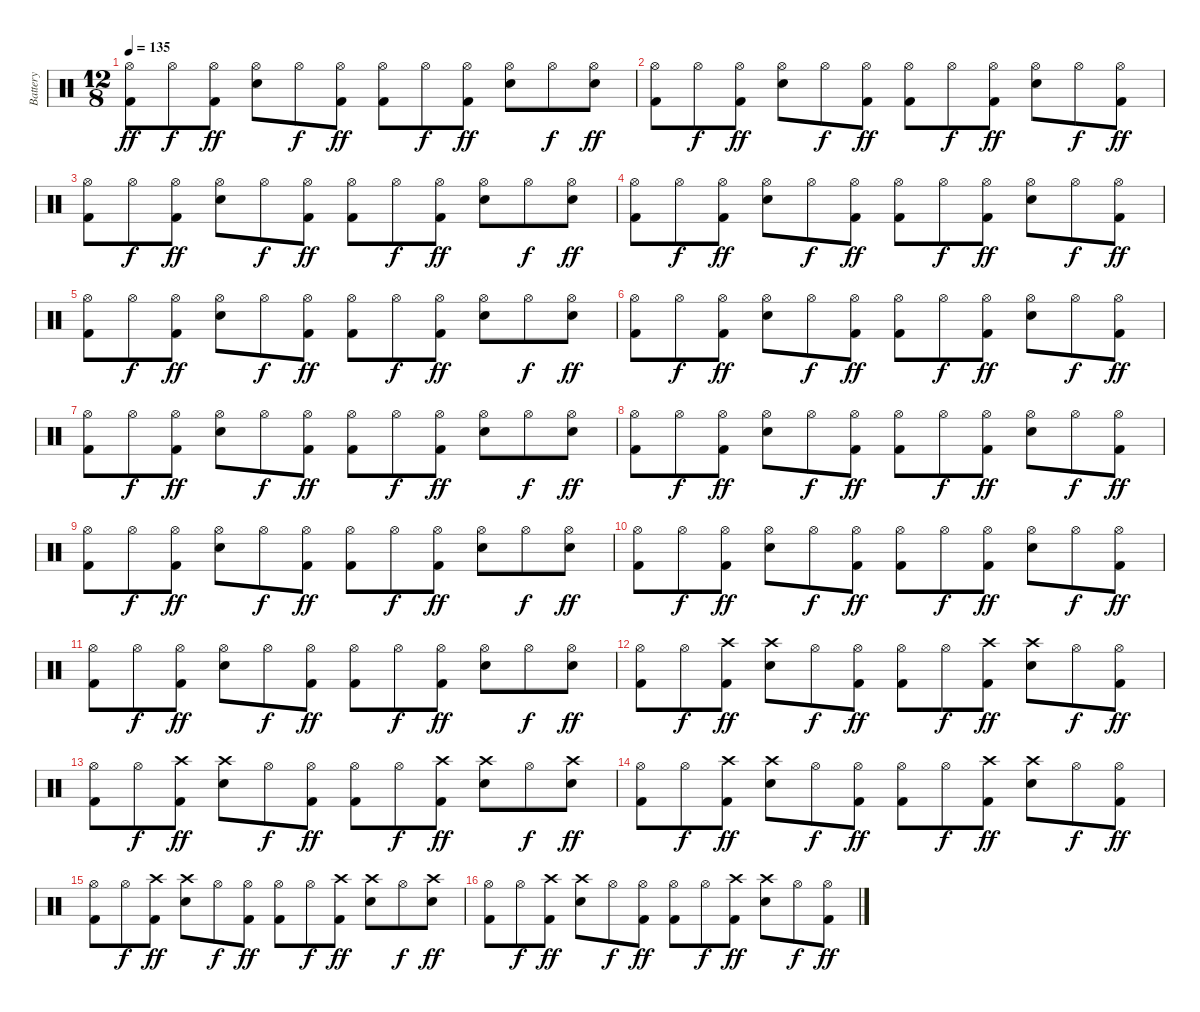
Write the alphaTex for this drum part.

\track ("Battery" "Battery") {instrument percussion}
\staff {score}
\articulation defaults
\ts (12 8)
\tempo 135
\clef neutral
\ks c
("Hi-Hat (open)" "Kick (hit) 2").8{dy ff} "Hi-Hat (open)".8{dy f} ("Hi-Hat (open)" "Kick (hit) 2").8{dy ff} ("Hi-Hat (open)" "Snare (hit) 2").8 "Hi-Hat (open)".8{dy f} ("Hi-Hat (open)" "Kick (hit) 2").8{dy ff} ("Hi-Hat (open)" "Kick (hit) 2").8 "Hi-Hat (open)".8{dy f} ("Hi-Hat (open)" "Kick (hit) 2").8{dy ff} ("Hi-Hat (open)" "Snare (hit) 2").8 "Hi-Hat (open)".8{dy f} ("Hi-Hat (open)" "Snare (hit) 2").8{dy ff} |
("Hi-Hat (open)" "Kick (hit) 2").8 "Hi-Hat (open)".8{dy f} ("Hi-Hat (open)" "Kick (hit) 2").8{dy ff} ("Hi-Hat (open)" "Snare (hit) 2").8 "Hi-Hat (open)".8{dy f} ("Hi-Hat (open)" "Kick (hit) 2").8{dy ff} ("Hi-Hat (open)" "Kick (hit) 2").8 "Hi-Hat (open)".8{dy f} ("Hi-Hat (open)" "Kick (hit) 2").8{dy ff} ("Hi-Hat (open)" "Snare (hit) 2").8 "Hi-Hat (open)".8{dy f} ("Hi-Hat (open)" "Kick (hit) 2").8{dy ff} |
("Hi-Hat (open)" "Kick (hit) 2").8 "Hi-Hat (open)".8{dy f} ("Hi-Hat (open)" "Kick (hit) 2").8{dy ff} ("Hi-Hat (open)" "Snare (hit) 2").8 "Hi-Hat (open)".8{dy f} ("Hi-Hat (open)" "Kick (hit) 2").8{dy ff} ("Hi-Hat (open)" "Kick (hit) 2").8 "Hi-Hat (open)".8{dy f} ("Hi-Hat (open)" "Kick (hit) 2").8{dy ff} ("Hi-Hat (open)" "Snare (hit) 2").8 "Hi-Hat (open)".8{dy f} ("Hi-Hat (open)" "Snare (hit) 2").8{dy ff} |
("Hi-Hat (open)" "Kick (hit) 2").8 "Hi-Hat (open)".8{dy f} ("Hi-Hat (open)" "Kick (hit) 2").8{dy ff} ("Hi-Hat (open)" "Snare (hit) 2").8 "Hi-Hat (open)".8{dy f} ("Hi-Hat (open)" "Kick (hit) 2").8{dy ff} ("Hi-Hat (open)" "Kick (hit) 2").8 "Hi-Hat (open)".8{dy f} ("Hi-Hat (open)" "Kick (hit) 2").8{dy ff} ("Hi-Hat (open)" "Snare (hit) 2").8 "Hi-Hat (open)".8{dy f} ("Hi-Hat (open)" "Kick (hit) 2").8{dy ff} |
("Hi-Hat (open)" "Kick (hit) 2").8 "Hi-Hat (open)".8{dy f} ("Hi-Hat (open)" "Kick (hit) 2").8{dy ff} ("Hi-Hat (open)" "Snare (hit) 2").8 "Hi-Hat (open)".8{dy f} ("Hi-Hat (open)" "Kick (hit) 2").8{dy ff} ("Hi-Hat (open)" "Kick (hit) 2").8 "Hi-Hat (open)".8{dy f} ("Hi-Hat (open)" "Kick (hit) 2").8{dy ff} ("Hi-Hat (open)" "Snare (hit) 2").8 "Hi-Hat (open)".8{dy f} ("Hi-Hat (open)" "Snare (hit) 2").8{dy ff} |
("Hi-Hat (open)" "Kick (hit) 2").8 "Hi-Hat (open)".8{dy f} ("Hi-Hat (open)" "Kick (hit) 2").8{dy ff} ("Hi-Hat (open)" "Snare (hit) 2").8 "Hi-Hat (open)".8{dy f} ("Hi-Hat (open)" "Kick (hit) 2").8{dy ff} ("Hi-Hat (open)" "Kick (hit) 2").8 "Hi-Hat (open)".8{dy f} ("Hi-Hat (open)" "Kick (hit) 2").8{dy ff} ("Hi-Hat (open)" "Snare (hit) 2").8 "Hi-Hat (open)".8{dy f} ("Hi-Hat (open)" "Kick (hit) 2").8{dy ff} |
("Hi-Hat (open)" "Kick (hit) 2").8 "Hi-Hat (open)".8{dy f} ("Hi-Hat (open)" "Kick (hit) 2").8{dy ff} ("Hi-Hat (open)" "Snare (hit) 2").8 "Hi-Hat (open)".8{dy f} ("Hi-Hat (open)" "Kick (hit) 2").8{dy ff} ("Hi-Hat (open)" "Kick (hit) 2").8 "Hi-Hat (open)".8{dy f} ("Hi-Hat (open)" "Kick (hit) 2").8{dy ff} ("Hi-Hat (open)" "Snare (hit) 2").8 "Hi-Hat (open)".8{dy f} ("Hi-Hat (open)" "Snare (hit) 2").8{dy ff} |
("Hi-Hat (open)" "Kick (hit) 2").8 "Hi-Hat (open)".8{dy f} ("Hi-Hat (open)" "Kick (hit) 2").8{dy ff} ("Hi-Hat (open)" "Snare (hit) 2").8 "Hi-Hat (open)".8{dy f} ("Hi-Hat (open)" "Kick (hit) 2").8{dy ff} ("Hi-Hat (open)" "Kick (hit) 2").8 "Hi-Hat (open)".8{dy f} ("Hi-Hat (open)" "Kick (hit) 2").8{dy ff} ("Hi-Hat (open)" "Snare (hit) 2").8 "Hi-Hat (open)".8{dy f} ("Hi-Hat (open)" "Kick (hit) 2").8{dy ff} |
("Hi-Hat (open)" "Kick (hit) 2").8 "Hi-Hat (open)".8{dy f} ("Hi-Hat (open)" "Kick (hit) 2").8{dy ff} ("Hi-Hat (open)" "Snare (hit) 2").8 "Hi-Hat (open)".8{dy f} ("Hi-Hat (open)" "Kick (hit) 2").8{dy ff} ("Hi-Hat (open)" "Kick (hit) 2").8 "Hi-Hat (open)".8{dy f} ("Hi-Hat (open)" "Kick (hit) 2").8{dy ff} ("Hi-Hat (open)" "Snare (hit) 2").8 "Hi-Hat (open)".8{dy f} ("Hi-Hat (open)" "Snare (hit) 2").8{dy ff} |
("Hi-Hat (open)" "Kick (hit) 2").8 "Hi-Hat (open)".8{dy f} ("Hi-Hat (open)" "Kick (hit) 2").8{dy ff} ("Hi-Hat (open)" "Snare (hit) 2").8 "Hi-Hat (open)".8{dy f} ("Hi-Hat (open)" "Kick (hit) 2").8{dy ff} ("Hi-Hat (open)" "Kick (hit) 2").8 "Hi-Hat (open)".8{dy f} ("Hi-Hat (open)" "Kick (hit) 2").8{dy ff} ("Hi-Hat (open)" "Snare (hit) 2").8 "Hi-Hat (open)".8{dy f} ("Hi-Hat (open)" "Kick (hit) 2").8{dy ff} |
("Hi-Hat (open)" "Kick (hit) 2").8 "Hi-Hat (open)".8{dy f} ("Hi-Hat (open)" "Kick (hit) 2").8{dy ff} ("Hi-Hat (open)" "Snare (hit) 2").8 "Hi-Hat (open)".8{dy f} ("Hi-Hat (open)" "Kick (hit) 2").8{dy ff} ("Hi-Hat (open)" "Kick (hit) 2").8 "Hi-Hat (open)".8{dy f} ("Hi-Hat (open)" "Kick (hit) 2").8{dy ff} ("Hi-Hat (open)" "Snare (hit) 2").8 "Hi-Hat (open)".8{dy f} ("Hi-Hat (open)" "Snare (hit) 2").8{dy ff} |
("Hi-Hat (open)" "Kick (hit) 2").8 "Hi-Hat (open)".8{dy f} ("Crash high (hit)" "Kick (hit) 2").8{dy ff} ("Crash high (hit)" "Snare (hit) 2").8 "Hi-Hat (open)".8{dy f} ("Hi-Hat (open)" "Kick (hit) 2").8{dy ff} ("Hi-Hat (open)" "Kick (hit) 2").8 "Hi-Hat (open)".8{dy f} ("Crash high (hit)" "Kick (hit) 2").8{dy ff} ("Crash high (hit)" "Snare (hit) 2").8 "Hi-Hat (open)".8{dy f} ("Hi-Hat (open)" "Kick (hit) 2").8{dy ff} |
("Hi-Hat (open)" "Kick (hit) 2").8 "Hi-Hat (open)".8{dy f} ("Crash high (hit)" "Kick (hit) 2").8{dy ff} ("Crash high (hit)" "Snare (hit) 2").8 "Hi-Hat (open)".8{dy f} ("Hi-Hat (open)" "Kick (hit) 2").8{dy ff} ("Hi-Hat (open)" "Kick (hit) 2").8 "Hi-Hat (open)".8{dy f} ("Crash high (hit)" "Kick (hit) 2").8{dy ff} ("Crash high (hit)" "Snare (hit) 2").8 "Hi-Hat (open)".8{dy f} ("Crash high (hit)" "Snare (hit) 2").8{dy ff} |
("Hi-Hat (open)" "Kick (hit) 2").8 "Hi-Hat (open)".8{dy f} ("Crash high (hit)" "Kick (hit) 2").8{dy ff} ("Crash high (hit)" "Snare (hit) 2").8 "Hi-Hat (open)".8{dy f} ("Hi-Hat (open)" "Kick (hit) 2").8{dy ff} ("Hi-Hat (open)" "Kick (hit) 2").8 "Hi-Hat (open)".8{dy f} ("Crash high (hit)" "Kick (hit) 2").8{dy ff} ("Crash high (hit)" "Snare (hit) 2").8 "Hi-Hat (open)".8{dy f} ("Hi-Hat (open)" "Kick (hit) 2").8{dy ff} |
("Hi-Hat (open)" "Kick (hit) 2").8 "Hi-Hat (open)".8{dy f} ("Crash high (hit)" "Kick (hit) 2").8{dy ff} ("Crash high (hit)" "Snare (hit) 2").8 "Hi-Hat (open)".8{dy f} ("Hi-Hat (open)" "Kick (hit) 2").8{dy ff} ("Hi-Hat (open)" "Kick (hit) 2").8 "Hi-Hat (open)".8{dy f} ("Crash high (hit)" "Kick (hit) 2").8{dy ff} ("Crash high (hit)" "Snare (hit) 2").8 "Hi-Hat (open)".8{dy f} ("Crash high (hit)" "Snare (hit) 2").8{dy ff} |
("Hi-Hat (open)" "Kick (hit) 2").8 "Hi-Hat (open)".8{dy f} ("Crash high (hit)" "Kick (hit) 2").8{dy ff} ("Crash high (hit)" "Snare (hit) 2").8 "Hi-Hat (open)".8{dy f} ("Hi-Hat (open)" "Kick (hit) 2").8{dy ff} ("Hi-Hat (open)" "Kick (hit) 2").8 "Hi-Hat (open)".8{dy f} ("Crash high (hit)" "Kick (hit) 2").8{dy ff} ("Crash high (hit)" "Snare (hit) 2").8 "Hi-Hat (open)".8{dy f} ("Hi-Hat (open)" "Kick (hit) 2").8{dy ff}
